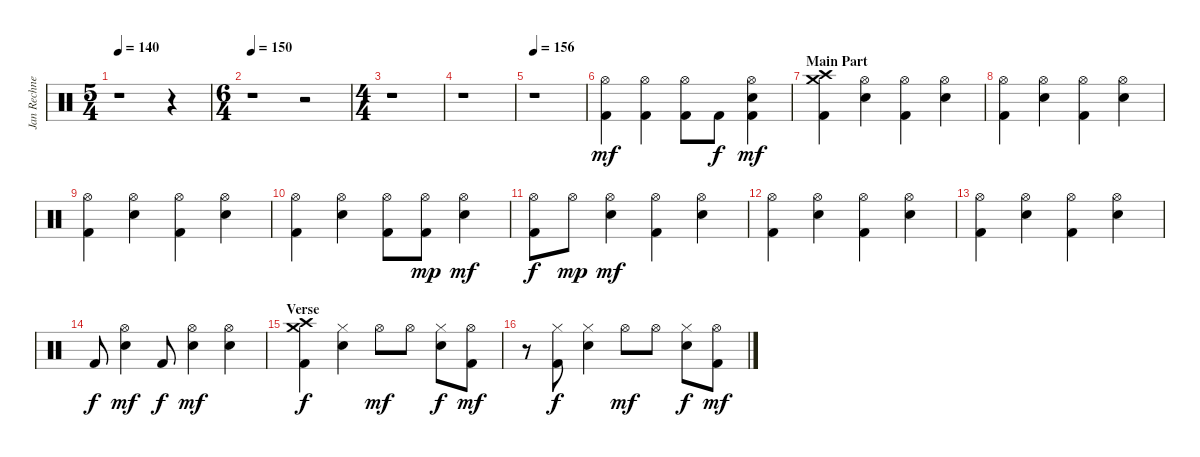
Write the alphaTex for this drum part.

\track ("Jan Rechnerger" "Jan Rechne") {instrument percussion}
\staff {score}
\articulation defaults
\ts (5 4)
\tempo 140
\clef neutral
\ks c
r.1{dy mf} r.4 |
\ts (6 4)
\tempo 150
r.1 r.2 |
\ts (4 4)
r.1 |
r.1 |
\tempo 156
r.1 |
("Hi-Hat (open)" "Kick (hit) 2").4 ("Hi-Hat (open)" "Kick (hit) 2").4 ("Hi-Hat (open)" "Kick (hit) 2").8 "Kick (hit) 2".8{dy f} ("Hi-Hat (open)" "Snare (hit) 2" "Kick (hit) 2").4{dy mf} |
\section ("" "Main Part")
("Crash high (hit)" "Crash medium (hit)" "Kick (hit) 2").4 ("Hi-Hat (open)" "Snare (hit) 2").4 ("Hi-Hat (open)" "Kick (hit) 2").4 ("Hi-Hat (open)" "Snare (hit) 2").4 |
("Hi-Hat (open)" "Kick (hit) 2").4 ("Hi-Hat (open)" "Snare (hit) 2").4 ("Hi-Hat (open)" "Kick (hit) 2").4 ("Hi-Hat (open)" "Snare (hit) 2").4 |
("Hi-Hat (open)" "Kick (hit) 2").4 ("Hi-Hat (open)" "Snare (hit) 2").4 ("Hi-Hat (open)" "Kick (hit) 2").4 ("Hi-Hat (open)" "Snare (hit) 2").4 |
("Hi-Hat (open)" "Kick (hit) 2").4 ("Hi-Hat (open)" "Snare (hit) 2").4 ("Hi-Hat (open)" "Kick (hit) 2").8 ("Hi-Hat (open)" "Kick (hit) 2").8{dy mp} ("Hi-Hat (open)" "Snare (hit) 2").4{dy mf} |
("Hi-Hat (open)" "Kick (hit) 2").8{dy f} "Hi-Hat (open)".8{dy mp} ("Hi-Hat (open)" "Snare (hit) 2").4{dy mf} ("Hi-Hat (open)" "Kick (hit) 2").4 ("Hi-Hat (open)" "Snare (hit) 2").4 |
("Hi-Hat (open)" "Kick (hit) 2").4 ("Hi-Hat (open)" "Snare (hit) 2").4 ("Hi-Hat (open)" "Kick (hit) 2").4 ("Hi-Hat (open)" "Snare (hit) 2").4 |
("Hi-Hat (open)" "Kick (hit) 2").4 ("Hi-Hat (open)" "Snare (hit) 2").4 ("Hi-Hat (open)" "Kick (hit) 2").4 ("Hi-Hat (open)" "Snare (hit) 2").4 |
"Kick (hit) 2".8{dy f} ("Hi-Hat (open)" "Snare (hit) 2").4{dy mf} "Kick (hit) 2".8{dy f} ("Hi-Hat (open)" "Snare (hit) 2").4{dy mf} ("Hi-Hat (open)" "Snare (hit) 2").4 |
\section ("" "Verse")
("Crash high (hit)" "Crash medium (hit)" "Kick (hit) 2").4{dy f} ("Hi-Hat (closed)" "Snare (hit) 2").4 "Hi-Hat (open)".8{dy mf} "Hi-Hat (open)".8 ("Hi-Hat (closed)" "Snare (hit) 2").8{dy f} ("Hi-Hat (open)" "Kick (hit) 2").8{dy mf} |
r.8 ("Hi-Hat (closed)" "Kick (hit) 2").8{dy f} ("Hi-Hat (closed)" "Snare (hit) 2").4 "Hi-Hat (open)".8{dy mf} "Hi-Hat (open)".8 ("Hi-Hat (closed)" "Snare (hit) 2").8{dy f} ("Hi-Hat (open)" "Kick (hit) 2").8{dy mf}
